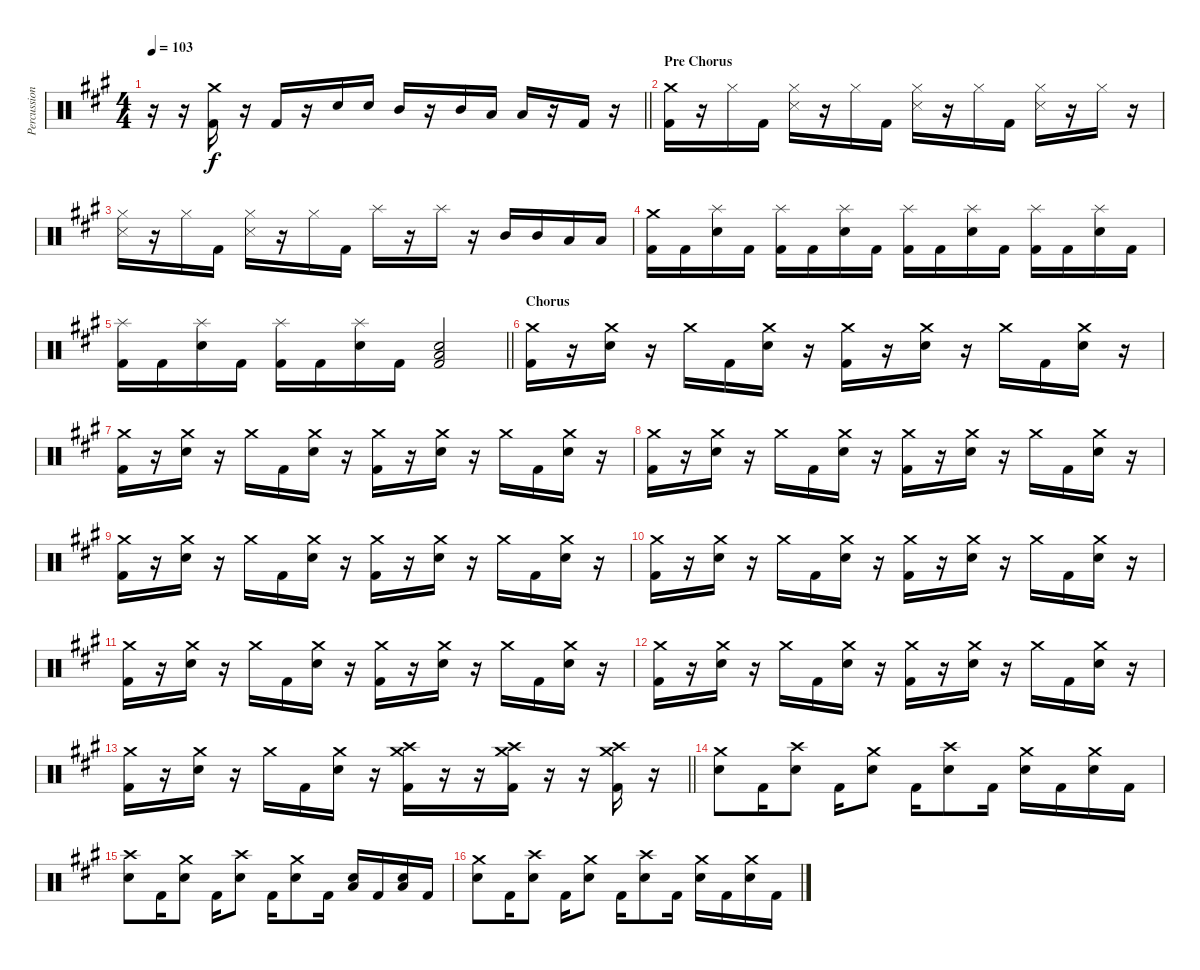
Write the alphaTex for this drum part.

\track ("Percussion" "Percussion") {instrument percussion}
\staff {score}
\articulation defaults
\ts (4 4)
\tempo 103
\clef neutral
\barLineRight lightlight
\ks f#minor
r.16{dy f} r.16 ("Crash medium (hit)" "Kick (hit) 2").16 r.16 "Kick (hit) 2".16 r.16 "Electric Snare (hit)".16 "Electric Snare (hit)".16 "Mid Tom (hit)".16 r.16 "Mid Tom (hit)".16 "Low Tom (hit)".16 "Low Tom (hit)".16 r.16 "Kick (hit) 2".16 r.16 |
\section ("" "Pre Chorus")
("Crash medium (hit)" "Kick (hit) 2").16 r.16 "Hi-Hat (closed)".16 "Kick (hit) 2".16 ("Hi-Hat (closed)" "Snare (side stick) 3").16 r.16 "Hi-Hat (closed)".16 "Kick (hit) 2".16 ("Hi-Hat (closed)" "Snare (side stick) 3").16 r.16 "Hi-Hat (closed)".16 "Kick (hit) 2".16 ("Hi-Hat (closed)" "Snare (side stick) 3").16 r.16 "Hi-Hat (closed)".16 r.16 |
("Hi-Hat (closed)" "Snare (side stick) 3").16 r.16 "Hi-Hat (closed)".16 "Kick (hit) 2".16 ("Hi-Hat (closed)" "Snare (side stick) 3").16 r.16 "Hi-Hat (closed)".16 "Kick (hit) 2".16 "Splash (hit)".16 r.16 "Splash (hit)".16 r.16 "Mid Tom (hit)".16 "Mid Tom (hit)".16 "Low Tom (hit)".16 "Low Tom (hit)".16 |
("Crash medium (hit)" "Kick (hit) 2").16 "Kick (hit) 2".16 ("Splash (hit)" "Electric Snare (hit)").16 "Kick (hit) 2".16 ("Splash (hit)" "Kick (hit) 2").16 "Kick (hit) 2".16 ("Splash (hit)" "Electric Snare (hit)").16 "Kick (hit) 2".16 ("Splash (hit)" "Kick (hit) 2").16 "Kick (hit) 2".16 ("Splash (hit)" "Electric Snare (hit)").16 "Kick (hit) 2".16 ("Splash (hit)" "Kick (hit) 2").16 "Kick (hit) 2".16 ("Splash (hit)" "Electric Snare (hit)").16 "Kick (hit) 2".16 |
\barLineRight lightlight
("Splash (hit)" "Kick (hit) 2").16 "Kick (hit) 2".16 ("Splash (hit)" "Electric Snare (hit)").16 "Kick (hit) 2".16 ("Splash (hit)" "Kick (hit) 2").16 "Kick (hit) 2".16 ("Splash (hit)" "Electric Snare (hit)").16 "Kick (hit) 2".16 ("Low Tom (hit)" "Electric Snare (hit)" "Kick (hit) 2").2 |
\section ("" "Chorus")
("Crash medium (hit)" "Kick (hit) 2").16 r.16 ("Crash medium (hit)" "Electric Snare (hit)").16 r.16 "Crash medium (hit)".16 "Kick (hit) 2".16 ("Crash medium (hit)" "Electric Snare (hit)").16 r.16 ("Crash medium (hit)" "Kick (hit) 2").16 r.16 ("Crash medium (hit)" "Electric Snare (hit)").16 r.16 "Crash medium (hit)".16 "Kick (hit) 2".16 ("Crash medium (hit)" "Electric Snare (hit)").16 r.16 |
("Crash medium (hit)" "Kick (hit) 2").16 r.16 ("Crash medium (hit)" "Electric Snare (hit)").16 r.16 "Crash medium (hit)".16 "Kick (hit) 2".16 ("Crash medium (hit)" "Electric Snare (hit)").16 r.16 ("Crash medium (hit)" "Kick (hit) 2").16 r.16 ("Crash medium (hit)" "Electric Snare (hit)").16 r.16 "Crash medium (hit)".16 "Kick (hit) 2".16 ("Crash medium (hit)" "Electric Snare (hit)").16 r.16 |
("Crash medium (hit)" "Kick (hit) 2").16 r.16 ("Crash medium (hit)" "Electric Snare (hit)").16 r.16 "Crash medium (hit)".16 "Kick (hit) 2".16 ("Crash medium (hit)" "Electric Snare (hit)").16 r.16 ("Crash medium (hit)" "Kick (hit) 2").16 r.16 ("Crash medium (hit)" "Electric Snare (hit)").16 r.16 "Crash medium (hit)".16 "Kick (hit) 2".16 ("Crash medium (hit)" "Electric Snare (hit)").16 r.16 |
("Crash medium (hit)" "Kick (hit) 2").16 r.16 ("Crash medium (hit)" "Electric Snare (hit)").16 r.16 "Crash medium (hit)".16 "Kick (hit) 2".16 ("Crash medium (hit)" "Electric Snare (hit)").16 r.16 ("Crash medium (hit)" "Kick (hit) 2").16 r.16 ("Crash medium (hit)" "Electric Snare (hit)").16 r.16 "Crash medium (hit)".16 "Kick (hit) 2".16 ("Crash medium (hit)" "Electric Snare (hit)").16 r.16 |
("Crash medium (hit)" "Kick (hit) 2").16 r.16 ("Crash medium (hit)" "Electric Snare (hit)").16 r.16 "Crash medium (hit)".16 "Kick (hit) 2".16 ("Crash medium (hit)" "Electric Snare (hit)").16 r.16 ("Crash medium (hit)" "Kick (hit) 2").16 r.16 ("Crash medium (hit)" "Electric Snare (hit)").16 r.16 "Crash medium (hit)".16 "Kick (hit) 2".16 ("Crash medium (hit)" "Electric Snare (hit)").16 r.16 |
("Crash medium (hit)" "Kick (hit) 2").16 r.16 ("Crash medium (hit)" "Electric Snare (hit)").16 r.16 "Crash medium (hit)".16 "Kick (hit) 2".16 ("Crash medium (hit)" "Electric Snare (hit)").16 r.16 ("Crash medium (hit)" "Kick (hit) 2").16 r.16 ("Crash medium (hit)" "Electric Snare (hit)").16 r.16 "Crash medium (hit)".16 "Kick (hit) 2".16 ("Crash medium (hit)" "Electric Snare (hit)").16 r.16 |
("Crash medium (hit)" "Kick (hit) 2").16 r.16 ("Crash medium (hit)" "Electric Snare (hit)").16 r.16 "Crash medium (hit)".16 "Kick (hit) 2".16 ("Crash medium (hit)" "Electric Snare (hit)").16 r.16 ("Crash medium (hit)" "Kick (hit) 2").16 r.16 ("Crash medium (hit)" "Electric Snare (hit)").16 r.16 "Crash medium (hit)".16 "Kick (hit) 2".16 ("Crash medium (hit)" "Electric Snare (hit)").16 r.16 |
\barLineRight lightlight
("Crash medium (hit)" "Kick (hit) 2").16 r.16 ("Crash medium (hit)" "Electric Snare (hit)").16 r.16 "Crash medium (hit)".16 "Kick (hit) 2".16 ("Crash medium (hit)" "Electric Snare (hit)").16 r.16 ("Crash high (hit)" "Crash medium (hit)" "Kick (hit) 2").16 r.16 r.16 ("Crash high (hit)" "Crash medium (hit)" "Kick (hit) 2").16 r.16 r.16 ("Crash high (hit)" "Crash medium (hit)" "Kick (hit) 2").16 r.16 |
("Crash medium (hit)" "Electric Snare (hit)").8 "Kick (hit) 2".16 ("Crash high (hit)" "Electric Snare (hit)").8 "Kick (hit) 2".16 ("Crash medium (hit)" "Electric Snare (hit)").8 "Kick (hit) 2".16 ("Crash high (hit)" "Electric Snare (hit)").8 "Kick (hit) 2".16 ("Crash medium (hit)" "Electric Snare (hit)").16 "Kick (hit) 2".16 ("Crash medium (hit)" "Electric Snare (hit)").16 "Kick (hit) 2".16 |
("Crash high (hit)" "Electric Snare (hit)").8 "Kick (hit) 2".16 ("Crash medium (hit)" "Electric Snare (hit)").8 "Kick (hit) 2".16 ("Crash high (hit)" "Electric Snare (hit)").8 "Kick (hit) 2".16 ("Crash medium (hit)" "Electric Snare (hit)").8 "Kick (hit) 2".16 ("Low Tom (hit)" "Electric Snare (hit)").16 "Kick (hit) 2".16 ("Low Tom (hit)" "Electric Snare (hit)").16 "Kick (hit) 2".16 |
("Crash medium (hit)" "Electric Snare (hit)").8 "Kick (hit) 2".16 ("Crash high (hit)" "Electric Snare (hit)").8 "Kick (hit) 2".16 ("Crash medium (hit)" "Electric Snare (hit)").8 "Kick (hit) 2".16 ("Crash high (hit)" "Electric Snare (hit)").8 "Kick (hit) 2".16 ("Crash medium (hit)" "Electric Snare (hit)").16 "Kick (hit) 2".16 ("Crash medium (hit)" "Electric Snare (hit)").16 "Kick (hit) 2".16
